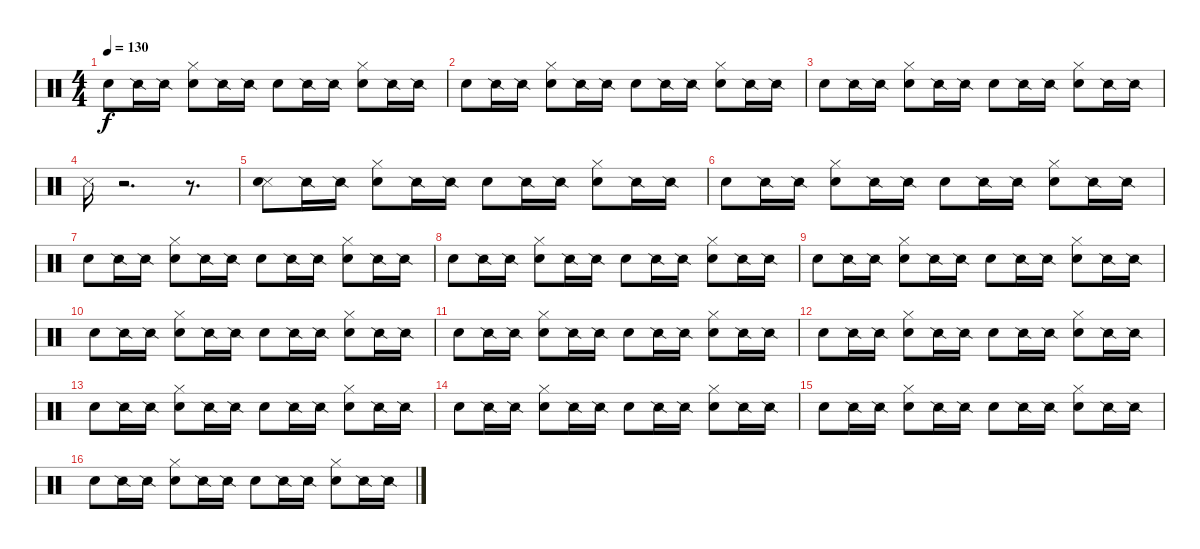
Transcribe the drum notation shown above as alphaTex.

\track "" {instrument percussion}
\staff {score}
\articulation defaults
\ts (4 4)
\tempo 130
\clef neutral
\ks c "Snare (hit)".8{dy f} "Snare (side stick) 2".16 "Snare (side stick) 2".16
("Snare (hit)" "Hi-Hat (closed)").8 "Snare (side stick) 2".16 "Snare (side stick) 2".16 "Snare (hit)".8 "Snare (side stick) 2".16 "Snare (side stick) 2".16 ("Snare (hit)" "Hi-Hat (closed)").8 "Snare (side stick) 2".16 "Snare (side stick) 2".16 |
"Snare (hit)".8 "Snare (side stick) 2".16 "Snare (side stick) 2".16 ("Snare (hit)" "Hi-Hat (closed)").8 "Snare (side stick) 2".16 "Snare (side stick) 2".16 "Snare (hit)".8 "Snare (side stick) 2".16 "Snare (side stick) 2".16 ("Snare (hit)" "Hi-Hat (closed)").8 "Snare (side stick) 2".16 "Snare (side stick) 2".16 |
"Snare (hit)".8 "Snare (side stick) 2".16 "Snare (side stick) 2".16 ("Snare (hit)" "Hi-Hat (closed)").8 "Snare (side stick) 2".16 "Snare (side stick) 2".16 "Snare (hit)".8 "Snare (side stick) 2".16 "Snare (side stick) 2".16 ("Snare (hit)" "Hi-Hat (closed)").8 "Snare (side stick) 2".16 "Snare (side stick) 2".16 |
"Snare (side stick) 3".16 r.2{d} r.8{d} |
("Snare (side stick) 3" "Snare (hit)").8 "Snare (side stick) 2".16 "Snare (side stick) 2".16 ("Snare (hit)" "Hi-Hat (closed)").8 "Snare (side stick) 2".16 "Snare (side stick) 2".16 "Snare (hit)".8 "Snare (side stick) 2".16 "Snare (side stick) 2".16 ("Snare (hit)" "Hi-Hat (closed)").8 "Snare (side stick) 2".16 "Snare (side stick) 2".16 |
"Snare (hit)".8 "Snare (side stick) 2".16 "Snare (side stick) 2".16 ("Snare (hit)" "Hi-Hat (closed)").8 "Snare (side stick) 2".16 "Snare (side stick) 2".16 "Snare (hit)".8 "Snare (side stick) 2".16 "Snare (side stick) 2".16 ("Snare (hit)" "Hi-Hat (closed)").8 "Snare (side stick) 2".16 "Snare (side stick) 2".16 |
"Snare (hit)".8 "Snare (side stick) 2".16 "Snare (side stick) 2".16 ("Snare (hit)" "Hi-Hat (closed)").8 "Snare (side stick) 2".16 "Snare (side stick) 2".16 "Snare (hit)".8 "Snare (side stick) 2".16 "Snare (side stick) 2".16 ("Snare (hit)" "Hi-Hat (closed)").8 "Snare (side stick) 2".16 "Snare (side stick) 2".16 |
"Snare (hit)".8 "Snare (side stick) 2".16 "Snare (side stick) 2".16 ("Snare (hit)" "Hi-Hat (closed)").8 "Snare (side stick) 2".16 "Snare (side stick) 2".16 "Snare (hit)".8 "Snare (side stick) 2".16 "Snare (side stick) 2".16 ("Snare (hit)" "Hi-Hat (closed)").8 "Snare (side stick) 2".16 "Snare (side stick) 2".16 |
"Snare (hit)".8 "Snare (side stick) 2".16 "Snare (side stick) 2".16 ("Snare (hit)" "Hi-Hat (closed)").8 "Snare (side stick) 2".16 "Snare (side stick) 2".16 "Snare (hit)".8 "Snare (side stick) 2".16 "Snare (side stick) 2".16 ("Snare (hit)" "Hi-Hat (closed)").8 "Snare (side stick) 2".16 "Snare (side stick) 2".16 |
"Snare (hit)".8 "Snare (side stick) 2".16 "Snare (side stick) 2".16 ("Snare (hit)" "Hi-Hat (closed)").8 "Snare (side stick) 2".16 "Snare (side stick) 2".16 "Snare (hit)".8 "Snare (side stick) 2".16 "Snare (side stick) 2".16 ("Snare (hit)" "Hi-Hat (closed)").8 "Snare (side stick) 2".16 "Snare (side stick) 2".16 |
"Snare (hit)".8 "Snare (side stick) 2".16 "Snare (side stick) 2".16 ("Snare (hit)" "Hi-Hat (closed)").8 "Snare (side stick) 2".16 "Snare (side stick) 2".16 "Snare (hit)".8 "Snare (side stick) 2".16 "Snare (side stick) 2".16 ("Snare (hit)" "Hi-Hat (closed)").8 "Snare (side stick) 2".16 "Snare (side stick) 2".16 |
"Snare (hit)".8 "Snare (side stick) 2".16 "Snare (side stick) 2".16 ("Snare (hit)" "Hi-Hat (closed)").8 "Snare (side stick) 2".16 "Snare (side stick) 2".16 "Snare (hit)".8 "Snare (side stick) 2".16 "Snare (side stick) 2".16 ("Snare (hit)" "Hi-Hat (closed)").8 "Snare (side stick) 2".16 "Snare (side stick) 2".16 |
"Snare (hit)".8 "Snare (side stick) 2".16 "Snare (side stick) 2".16 ("Snare (hit)" "Hi-Hat (closed)").8 "Snare (side stick) 2".16 "Snare (side stick) 2".16 "Snare (hit)".8 "Snare (side stick) 2".16 "Snare (side stick) 2".16 ("Snare (hit)" "Hi-Hat (closed)").8 "Snare (side stick) 2".16 "Snare (side stick) 2".16 |
"Snare (hit)".8 "Snare (side stick) 2".16 "Snare (side stick) 2".16 ("Snare (hit)" "Hi-Hat (closed)").8 "Snare (side stick) 2".16 "Snare (side stick) 2".16 "Snare (hit)".8 "Snare (side stick) 2".16 "Snare (side stick) 2".16 ("Snare (hit)" "Hi-Hat (closed)").8 "Snare (side stick) 2".16 "Snare (side stick) 2".16 |
"Snare (hit)".8 "Snare (side stick) 2".16 "Snare (side stick) 2".16 ("Snare (hit)" "Hi-Hat (closed)").8 "Snare (side stick) 2".16 "Snare (side stick) 2".16 "Snare (hit)".8 "Snare (side stick) 2".16 "Snare (side stick) 2".16 ("Snare (hit)" "Hi-Hat (closed)").8 "Snare (side stick) 2".16 "Snare (side stick) 2".16 |
"Snare (hit)".8 "Snare (side stick) 2".16 "Snare (side stick) 2".16 ("Snare (hit)" "Hi-Hat (closed)").8 "Snare (side stick) 2".16 "Snare (side stick) 2".16 "Snare (hit)".8 "Snare (side stick) 2".16 "Snare (side stick) 2".16 ("Snare (hit)" "Hi-Hat (closed)").8 "Snare (side stick) 2".16 "Snare (side stick) 2".16
